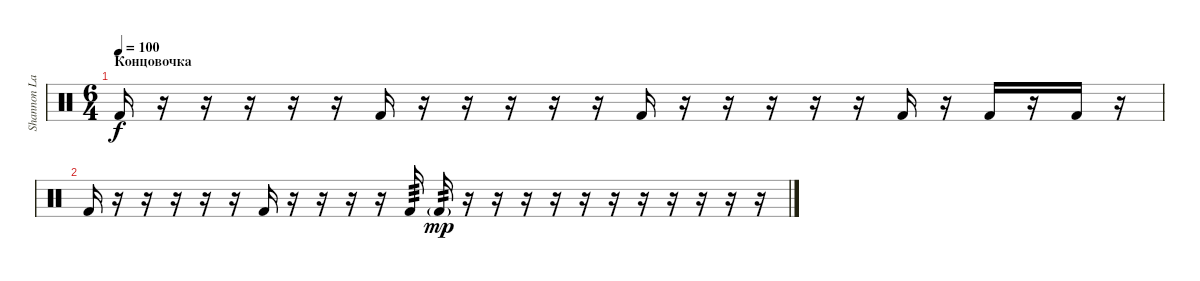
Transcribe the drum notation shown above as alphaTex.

\track ("Shannon Larkin [2]" "Shannon La") {instrument percussion}
\staff {score}
\articulation defaults
\ts (6 4)
\section ("" "Концовочка")
\tempo 100
\clef neutral
\ks c "Kick (hit) 2".16{dy f}
r.16 r.16 r.16 r.16 r.16 "Kick (hit) 2".16 r.16 r.16 r.16 r.16 r.16 "Kick (hit) 2".16 r.16 r.16 r.16 r.16 r.16 "Kick (hit) 2".16 r.16 "Kick (hit) 2".16 r.16 "Kick (hit) 2".16 r.16 |
"Kick (hit) 2".16 r.16 r.16 r.16 r.16 r.16 "Kick (hit) 2".16 r.16 r.16 r.16 r.16 "Kick (hit) 2".16{tp 3} "Kick (hit) 2"{g}.16{tp 2 dy mp} r.16 r.16 r.16 r.16 r.16 r.16 r.16 r.16 r.16 r.16 r.16
